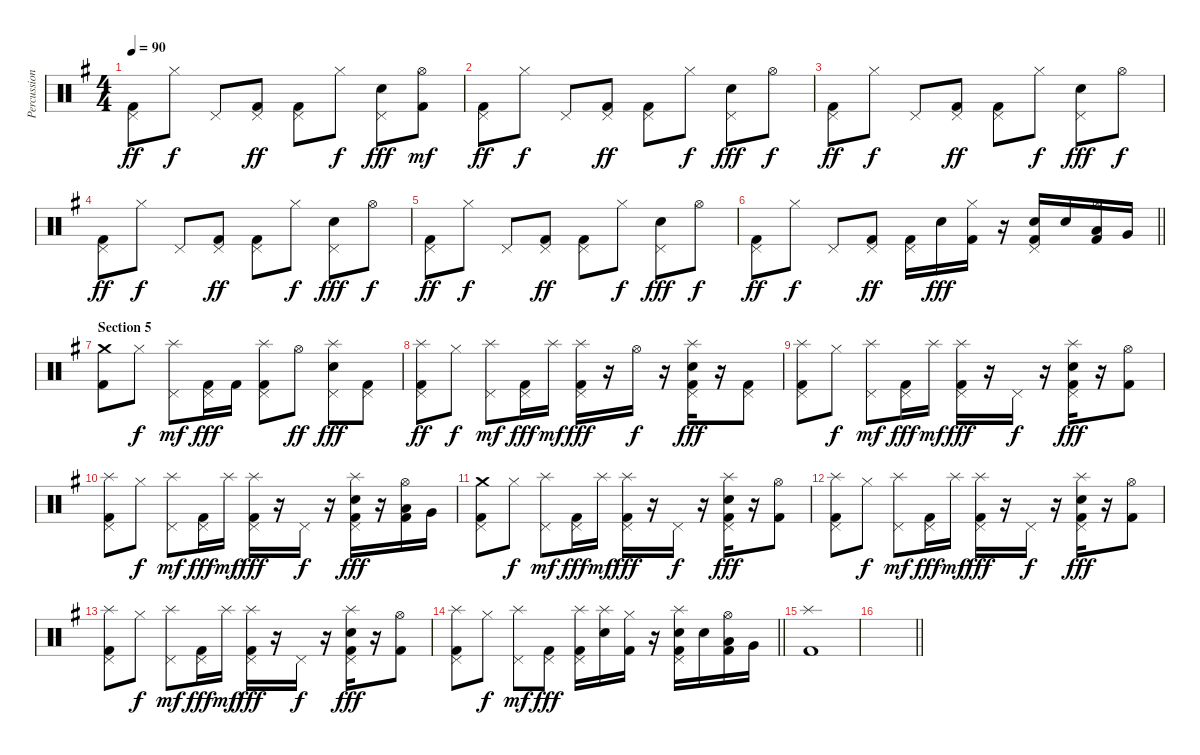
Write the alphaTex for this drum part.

\track ("Percussion" "Percussion") {instrument percussion}
\staff {score}
\articulation defaults
\ts (4 4)
\tempo 90
\clef neutral
\ks g
("Pedal Hi-Hat (hit)" "Kick (hit) 2").8{dy ff} "Hi-Hat (closed)".8{dy f} "Pedal Hi-Hat (hit)".8 ("Pedal Hi-Hat (hit)" "Kick (hit) 2").8{dy ff} ("Pedal Hi-Hat (hit)" "Kick (hit) 2").8 "Hi-Hat (closed)".8{dy f} ("Pedal Hi-Hat (hit)" "Snare (hit) 2").8{dy fff} ("Hi-Hat (open)" "Kick (hit) 2").8{dy mf} |
("Pedal Hi-Hat (hit)" "Kick (hit) 2").8{dy ff} "Hi-Hat (closed)".8{dy f} "Pedal Hi-Hat (hit)".8 ("Pedal Hi-Hat (hit)" "Kick (hit) 2").8{dy ff} ("Pedal Hi-Hat (hit)" "Kick (hit) 2").8 "Hi-Hat (closed)".8{dy f} ("Pedal Hi-Hat (hit)" "Snare (hit) 2").8{dy fff} "Hi-Hat (open)".8{dy f} |
("Pedal Hi-Hat (hit)" "Kick (hit) 2").8{dy ff} "Hi-Hat (closed)".8{dy f} "Pedal Hi-Hat (hit)".8 ("Pedal Hi-Hat (hit)" "Kick (hit) 2").8{dy ff} ("Pedal Hi-Hat (hit)" "Kick (hit) 2").8 "Hi-Hat (closed)".8{dy f} ("Pedal Hi-Hat (hit)" "Snare (hit) 2").8{dy fff} "Hi-Hat (open)".8{dy f} |
("Pedal Hi-Hat (hit)" "Kick (hit) 2").8{dy ff} "Hi-Hat (closed)".8{dy f} "Pedal Hi-Hat (hit)".8 ("Pedal Hi-Hat (hit)" "Kick (hit) 2").8{dy ff} ("Pedal Hi-Hat (hit)" "Kick (hit) 2").8 "Hi-Hat (closed)".8{dy f} ("Pedal Hi-Hat (hit)" "Snare (hit) 2").8{dy fff} "Hi-Hat (open)".8{dy f} |
("Pedal Hi-Hat (hit)" "Kick (hit) 2").8{dy ff} "Hi-Hat (closed)".8{dy f} "Pedal Hi-Hat (hit)".8 ("Pedal Hi-Hat (hit)" "Kick (hit) 2").8{dy ff} ("Pedal Hi-Hat (hit)" "Kick (hit) 2").8 "Hi-Hat (closed)".8{dy f} ("Pedal Hi-Hat (hit)" "Snare (hit) 2").8{dy fff} "Hi-Hat (open)".8{dy f} |
\barLineRight lightlight
("Pedal Hi-Hat (hit)" "Kick (hit) 2").8{dy ff} "Hi-Hat (closed)".8{dy f} "Pedal Hi-Hat (hit)".8 ("Pedal Hi-Hat (hit)" "Kick (hit) 2").8{dy ff} ("Pedal Hi-Hat (hit)" "Kick (hit) 2").16 "Snare (hit) 2".16{dy fff} ("Hi-Hat (closed)" "Kick (hit) 2").16 r.16 ("Pedal Hi-Hat (hit)" "Snare (hit) 2" "Kick (hit) 2").16 "Snare (hit) 2".16 ("Hi-Hat (open)" "Low Tom (hit)" "Kick (hit) 2").16 "Very Low Tom (hit)".16 |
\section ("" "Section 5")
("Crash medium (hit)" "Kick (hit) 2").8{volume 11} "Hi-Hat (closed)".8{dy f} ("Splash (hit)" "Pedal Hi-Hat (hit)").8{dy mf} ("Pedal Hi-Hat (hit)" "Kick (hit) 2").16{dy fff} "Kick (hit) 2".16 ("Splash (hit)" "Pedal Hi-Hat (hit)" "Kick (hit) 2").8 "Hi-Hat (open)".8{dy ff} ("Splash (hit)" "Pedal Hi-Hat (hit)" "Snare (hit) 2").8{dy fff} ("Pedal Hi-Hat (hit)" "Kick (hit) 2").8 |
("Splash (hit)" "Pedal Hi-Hat (hit)" "Kick (hit) 2").8{dy ff} "Hi-Hat (closed)".8{dy f} ("Splash (hit)" "Pedal Hi-Hat (hit)").8{dy mf} ("Pedal Hi-Hat (hit)" "Kick (hit) 2").16{dy fff} "Splash (hit)".16{dy mf} ("Splash (hit)" "Pedal Hi-Hat (hit)" "Kick (hit) 2").16{dy fff} r.16 "Hi-Hat (open)".16{dy f} r.16 ("Splash (hit)" "Pedal Hi-Hat (hit)" "Snare (hit) 2" "Kick (hit) 2").16{dy fff} r.16 ("Pedal Hi-Hat (hit)" "Kick (hit) 2").8 |
("Splash (hit)" "Pedal Hi-Hat (hit)" "Kick (hit) 2").8 "Hi-Hat (closed)".8{dy f} ("Splash (hit)" "Pedal Hi-Hat (hit)").8{dy mf} ("Pedal Hi-Hat (hit)" "Kick (hit) 2").16{dy fff} "Splash (hit)".16{dy mf} ("Splash (hit)" "Pedal Hi-Hat (hit)" "Kick (hit) 2").16{dy fff} r.16 "Pedal Hi-Hat (hit)".16{dy f} r.16 ("Splash (hit)" "Pedal Hi-Hat (hit)" "Snare (hit) 2" "Kick (hit) 2").16{dy fff} r.16 ("Hi-Hat (open)" "Kick (hit) 2").8 |
("Splash (hit)" "Pedal Hi-Hat (hit)" "Kick (hit) 2").8 "Hi-Hat (closed)".8{dy f} ("Splash (hit)" "Pedal Hi-Hat (hit)").8{dy mf} ("Pedal Hi-Hat (hit)" "Kick (hit) 2").16{dy fff} "Splash (hit)".16{dy mf} ("Splash (hit)" "Pedal Hi-Hat (hit)" "Kick (hit) 2").16{dy fff} r.16 "Pedal Hi-Hat (hit)".16{dy f} r.16 ("Splash (hit)" "Pedal Hi-Hat (hit)" "Snare (hit) 2" "Kick (hit) 2").16{dy fff} r.16 ("Hi-Hat (open)" "Low Tom (hit)" "Kick (hit) 2").16 "Very Low Tom (hit)".16 |
("Crash medium (hit)" "Pedal Hi-Hat (hit)" "Kick (hit) 2").8 "Hi-Hat (closed)".8{dy f} ("Splash (hit)" "Pedal Hi-Hat (hit)").8{dy mf} ("Pedal Hi-Hat (hit)" "Kick (hit) 2").16{dy fff} "Splash (hit)".16{dy mf} ("Splash (hit)" "Pedal Hi-Hat (hit)" "Kick (hit) 2").16{dy fff} r.16 "Pedal Hi-Hat (hit)".16{dy f} r.16 ("Splash (hit)" "Pedal Hi-Hat (hit)" "Snare (hit) 2" "Kick (hit) 2").16{dy fff} r.16 ("Hi-Hat (open)" "Kick (hit) 2").8 |
("Splash (hit)" "Pedal Hi-Hat (hit)" "Kick (hit) 2").8 "Hi-Hat (closed)".8{dy f} ("Splash (hit)" "Pedal Hi-Hat (hit)").8{dy mf} ("Pedal Hi-Hat (hit)" "Kick (hit) 2").16{dy fff} "Splash (hit)".16{dy mf} ("Splash (hit)" "Pedal Hi-Hat (hit)" "Kick (hit) 2").16{dy fff} r.16 "Pedal Hi-Hat (hit)".16{dy f} r.16 ("Splash (hit)" "Pedal Hi-Hat (hit)" "Snare (hit) 2" "Kick (hit) 2").16{dy fff} r.16 ("Hi-Hat (open)" "Kick (hit) 2").8 |
("Splash (hit)" "Pedal Hi-Hat (hit)" "Kick (hit) 2").8 "Hi-Hat (closed)".8{dy f} ("Splash (hit)" "Pedal Hi-Hat (hit)").8{dy mf} ("Pedal Hi-Hat (hit)" "Kick (hit) 2").16{dy fff} "Splash (hit)".16{dy mf} ("Splash (hit)" "Pedal Hi-Hat (hit)" "Kick (hit) 2").16{dy fff} r.16 "Pedal Hi-Hat (hit)".16{dy f} r.16 ("Splash (hit)" "Pedal Hi-Hat (hit)" "Snare (hit) 2" "Kick (hit) 2").16{dy fff} r.16 ("Hi-Hat (open)" "Kick (hit) 2").8 |
\barLineRight lightlight
("Splash (hit)" "Pedal Hi-Hat (hit)" "Kick (hit) 2").8 "Hi-Hat (closed)".8{dy f} ("Splash (hit)" "Pedal Hi-Hat (hit)").8{dy mf} ("Pedal Hi-Hat (hit)" "Kick (hit) 2").8{dy fff} ("Splash (hit)" "Pedal Hi-Hat (hit)" "Kick (hit) 2").16 ("Splash (hit)" "Snare (hit) 2").16 ("Hi-Hat (closed)" "Kick (hit) 2").16 r.16 ("Splash (hit)" "Pedal Hi-Hat (hit)" "Snare (hit) 2" "Kick (hit) 2").16 "Snare (hit) 2".16 ("Hi-Hat (open)" "Low Tom (hit)" "Kick (hit) 2").16 "Very Low Tom (hit)".16 |
("Splash (hit)" "Kick (hit) 2").1 |
\barLineRight lightlight
